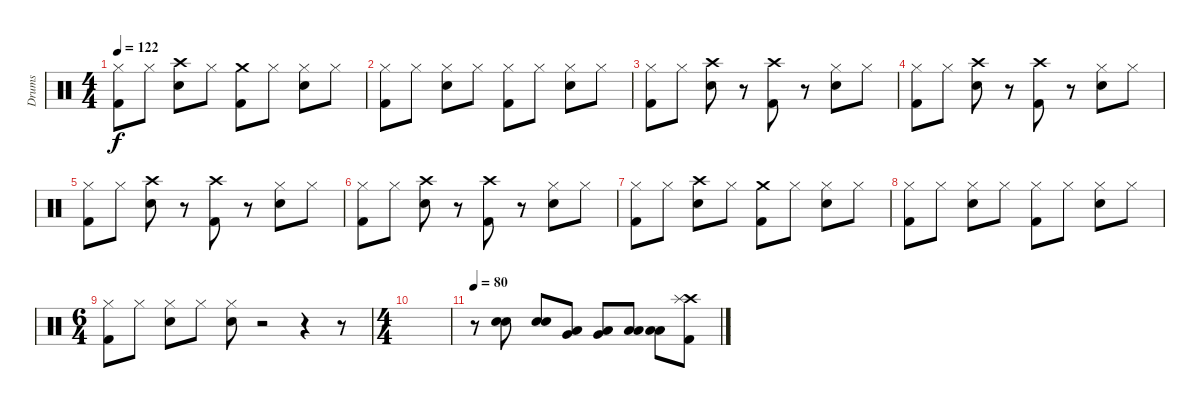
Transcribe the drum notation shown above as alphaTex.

\track ("Drums" "Drums") {instrument percussion}
\staff {score}
\articulation defaults
\ts (4 4)
\tempo 122
\clef neutral
\ks c
("Hi-Hat (closed)" "Kick (hit) 2").8{dy f} "Hi-Hat (closed)".8 ("Crash high (hit)" "Electric Snare (hit)").8 "Hi-Hat (closed)".8 ("Crash medium (hit)" "Kick (hit) 2").8 "Hi-Hat (closed)".8 ("Hi-Hat (closed)" "Electric Snare (hit)").8 "Hi-Hat (closed)".8 |
("Hi-Hat (closed)" "Kick (hit) 2").8 "Hi-Hat (closed)".8 ("Hi-Hat (closed)" "Electric Snare (hit)").8 "Hi-Hat (closed)".8 ("Hi-Hat (closed)" "Kick (hit) 2").8 "Hi-Hat (closed)".8 ("Hi-Hat (closed)" "Electric Snare (hit)").8 "Hi-Hat (closed)".8 |
("Hi-Hat (closed)" "Kick (hit) 2").8 "Hi-Hat (closed)".8 ("Crash high (hit)" "Electric Snare (hit)").8 r.8 ("Crash high (hit)" "Kick (hit) 2").8 r.8 ("Hi-Hat (closed)" "Electric Snare (hit)").8 "Hi-Hat (closed)".8 |
("Hi-Hat (closed)" "Kick (hit) 2").8 "Hi-Hat (closed)".8 ("Crash high (hit)" "Electric Snare (hit)").8 r.8 ("Crash high (hit)" "Kick (hit) 2").8 r.8 ("Hi-Hat (closed)" "Electric Snare (hit)").8 "Hi-Hat (closed)".8 |
("Hi-Hat (closed)" "Kick (hit) 2").8 "Hi-Hat (closed)".8 ("Crash high (hit)" "Electric Snare (hit)").8 r.8 ("Crash high (hit)" "Kick (hit) 2").8 r.8 ("Hi-Hat (closed)" "Electric Snare (hit)").8 "Hi-Hat (closed)".8 |
("Hi-Hat (closed)" "Kick (hit) 2").8 "Hi-Hat (closed)".8 ("Crash high (hit)" "Electric Snare (hit)").8 r.8 ("Crash high (hit)" "Kick (hit) 2").8 r.8 ("Hi-Hat (closed)" "Electric Snare (hit)").8 "Hi-Hat (closed)".8 |
("Hi-Hat (closed)" "Kick (hit) 2").8 "Hi-Hat (closed)".8 ("Crash high (hit)" "Electric Snare (hit)").8 "Hi-Hat (closed)".8 ("Crash medium (hit)" "Kick (hit) 2").8 "Hi-Hat (closed)".8 ("Hi-Hat (closed)" "Electric Snare (hit)").8 "Hi-Hat (closed)".8 |
("Hi-Hat (closed)" "Kick (hit) 2").8 "Hi-Hat (closed)".8 ("Hi-Hat (closed)" "Electric Snare (hit)").8 "Hi-Hat (closed)".8 ("Hi-Hat (closed)" "Kick (hit) 2").8 "Hi-Hat (closed)".8 ("Hi-Hat (closed)" "Electric Snare (hit)").8 "Hi-Hat (closed)".8 |
\ts (6 4)
("Hi-Hat (closed)" "Kick (hit) 2").8 "Hi-Hat (closed)".8 ("Hi-Hat (closed)" "Electric Snare (hit)").8 "Hi-Hat (closed)".8 ("Hi-Hat (closed)" "Electric Snare (hit)").8 r.2 r.4 r.8 |
\ts (4 4)
|
\tempo 80
r.8 ("Electric Snare (hit)" "Electric Snare (hit)").8 ("Electric Snare (hit)" "Electric Snare (hit)").8 ("Very Low Tom (hit)" "Low Tom (hit)").8 ("Very Low Tom (hit)" "Low Tom (hit)").8 ("Low Tom (hit)" "Low Floor Tom (hit)").8 ("Low Tom (hit)" "Low Floor Tom (hit)").8 ("Crash high (hit)" "Splash (hit)" "Kick (hit) 2").8
